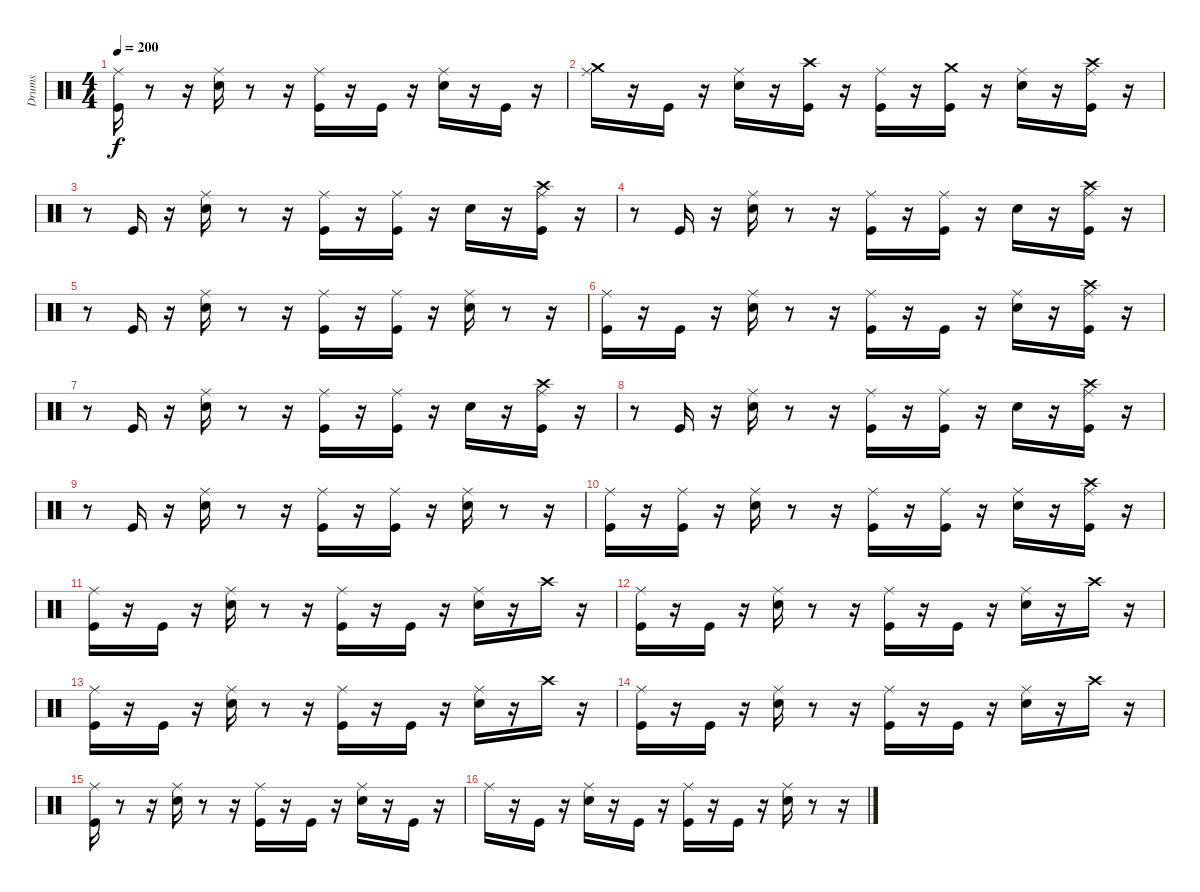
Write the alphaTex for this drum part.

\track ("Drums" "Drums") {instrument percussion}
\staff {score}
\articulation defaults
\ts (4 4)
\tempo 200
\clef neutral
\ks c
("Ride (middle)" "Kick (hit)").16{dy f} r.8 r.16 ("Ride (middle)" "Snare (hit) 2").16 r.8 r.16 ("Ride (middle)" "Kick (hit)").16 r.16 "Kick (hit)".16 r.16 ("Ride (middle)" "Snare (hit) 2").16 r.16 "Kick (hit)".16 r.16 |
("Ride (middle)" "Crash medium (hit)").16 r.16 "Kick (hit)".16 r.16 ("Ride (middle)" "Snare (hit) 2").16 r.16 ("Kick (hit)" "Crash high (hit)").16 r.16 ("Ride (middle)" "Kick (hit)").16 r.16 ("Kick (hit)" "Crash medium (hit)").16 r.16 ("Snare (hit) 2" "Ride (middle)").16 r.16 ("Crash high (hit)" "Kick (hit)" "Ride (middle)").16 r.16 |
r.8 "Kick (hit)".16 r.16 ("Ride (middle)" "Snare (hit) 2").16 r.8 r.16 ("Ride (middle)" "Kick (hit)").16 r.16 ("Ride (middle)" "Kick (hit)").16 r.16 "Snare (hit) 2".16 r.16 ("Ride (middle)" "Kick (hit)" "Crash high (hit)").16 r.16 |
r.8 "Kick (hit)".16 r.16 ("Ride (middle)" "Snare (hit) 2").16 r.8 r.16 ("Ride (middle)" "Kick (hit)").16 r.16 ("Ride (middle)" "Kick (hit)").16 r.16 "Snare (hit) 2".16 r.16 ("Ride (middle)" "Kick (hit)" "Crash high (hit)").16 r.16 |
r.8 "Kick (hit)".16 r.16 ("Snare (hit) 2" "Ride (middle)").16 r.8 r.16 ("Ride (middle)" "Kick (hit)").16 r.16 ("Kick (hit)" "Ride (middle)").16 r.16 ("Ride (middle)" "Snare (hit) 2").16 r.8 r.16 |
("Ride (middle)" "Kick (hit)").16 r.16 "Kick (hit)".16 r.16 ("Ride (middle)" "Snare (hit) 2").16 r.8 r.16 ("Ride (middle)" "Kick (hit)").16 r.16 "Kick (hit)".16 r.16 ("Ride (middle)" "Snare (hit) 2").16 r.16 ("Ride (middle)" "Crash high (hit)" "Kick (hit)").16 r.16 |
r.8 "Kick (hit)".16 r.16 ("Ride (middle)" "Snare (hit) 2").16 r.8 r.16 ("Ride (middle)" "Kick (hit)").16 r.16 ("Kick (hit)" "Ride (middle)").16 r.16 "Snare (hit) 2".16 r.16 ("Ride (middle)" "Kick (hit)" "Crash high (hit)").16 r.16 |
r.8 "Kick (hit)".16 r.16 ("Ride (middle)" "Snare (hit) 2").16 r.8 r.16 ("Ride (middle)" "Kick (hit)").16 r.16 ("Ride (middle)" "Kick (hit)").16 r.16 "Snare (hit) 2".16 r.16 ("Kick (hit)" "Crash high (hit)" "Ride (middle)").16 r.16 |
r.8 "Kick (hit)".16 r.16 ("Ride (middle)" "Snare (hit) 2").16 r.8 r.16 ("Ride (middle)" "Kick (hit)").16 r.16 ("Kick (hit)" "Ride (middle)").16 r.16 ("Ride (middle)" "Snare (hit) 2").16 r.8 r.16 |
("Ride (middle)" "Kick (hit)").16 r.16 ("Ride (middle)" "Kick (hit)").16 r.16 ("Ride (middle)" "Snare (hit) 2").16 r.8 r.16 ("Ride (middle)" "Kick (hit)").16 r.16 ("Kick (hit)" "Ride (middle)").16 r.16 ("Ride (middle)" "Snare (hit) 2").16 r.16 ("Kick (hit)" "Crash high (hit)" "Ride (middle)").16 r.16 |
("Ride (middle)" "Kick (hit)").16 r.16 "Kick (hit)".16 r.16 ("Ride (middle)" "Snare (hit) 2").16 r.8 r.16 ("Kick (hit)" "Ride (middle)").16 r.16 "Kick (hit)".16 r.16 ("Ride (middle)" "Snare (hit) 2").16 r.16 "Crash high (hit)".16 r.16 |
("Ride (middle)" "Kick (hit)").16 r.16 "Kick (hit)".16 r.16 ("Ride (middle)" "Snare (hit) 2").16 r.8 r.16 ("Ride (middle)" "Kick (hit)").16 r.16 "Kick (hit)".16 r.16 ("Ride (middle)" "Snare (hit) 2").16 r.16 "Crash high (hit)".16 r.16 |
("Ride (middle)" "Kick (hit)").16 r.16 "Kick (hit)".16 r.16 ("Ride (middle)" "Snare (hit) 2").16 r.8 r.16 ("Ride (middle)" "Kick (hit)").16 r.16 "Kick (hit)".16 r.16 ("Ride (middle)" "Snare (hit) 2").16 r.16 "Crash high (hit)".16 r.16 |
("Ride (middle)" "Kick (hit)").16 r.16 "Kick (hit)".16 r.16 ("Ride (middle)" "Snare (hit) 2").16 r.8 r.16 ("Ride (middle)" "Kick (hit)").16 r.16 "Kick (hit)".16 r.16 ("Ride (middle)" "Snare (hit) 2").16 r.16 "Crash high (hit)".16 r.16 |
("Ride (middle)" "Kick (hit)").16 r.8 r.16 ("Ride (middle)" "Snare (hit) 2").16 r.8 r.16 ("Ride (middle)" "Kick (hit)").16 r.16 "Kick (hit)".16 r.16 ("Ride (middle)" "Snare (hit) 2").16 r.16 "Kick (hit)".16 r.16 |
"Ride (middle)".16 r.16 "Kick (hit)".16 r.16 ("Ride (middle)" "Snare (hit) 2").16 r.16 "Kick (hit)".16 r.16 ("Ride (middle)" "Kick (hit)").16 r.16 "Kick (hit)".16 r.16 ("Ride (middle)" "Snare (hit) 2").16 r.8 r.16
